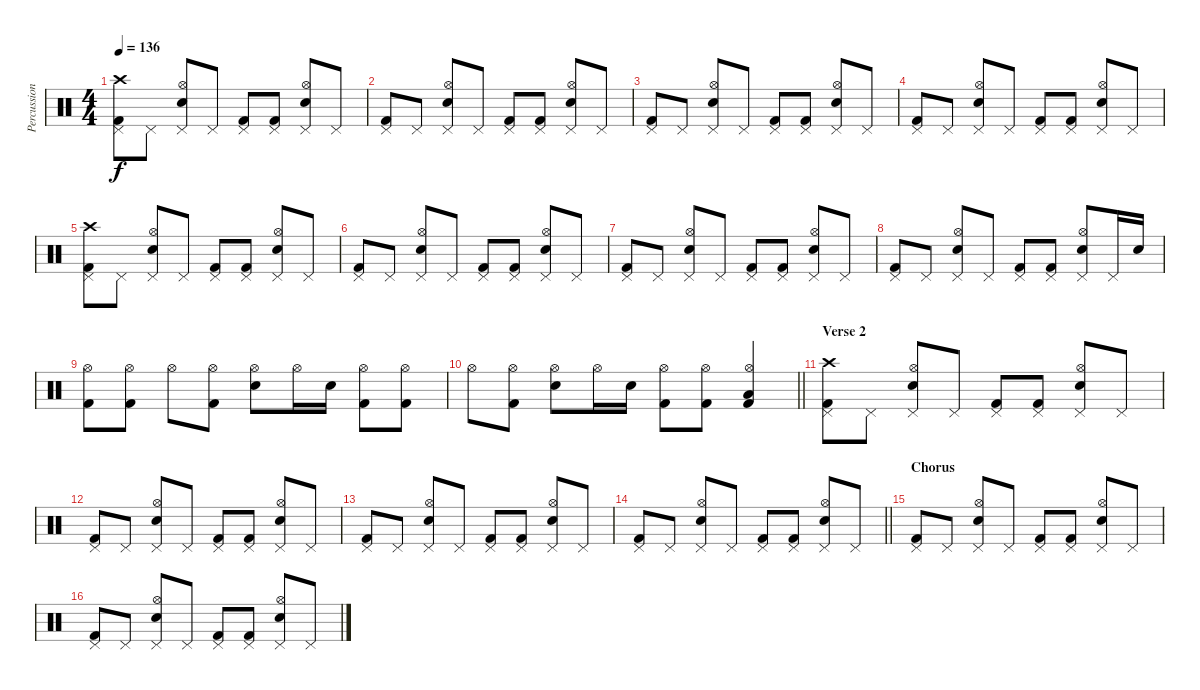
\track ("Percussion" "Percussion") {instrument percussion}
\staff {score}
\articulation defaults
\ts (4 4)
\tempo 136
\clef neutral
\ks c
("Crash high (hit)" "Pedal Hi-Hat (hit)" "Kick (hit) 2").8{dy f} "Pedal Hi-Hat (hit)".8 ("Hi-Hat (open)" "Pedal Hi-Hat (hit)" "Snare (hit) 2").8 "Pedal Hi-Hat (hit)".8 ("Pedal Hi-Hat (hit)" "Kick (hit) 2").8 ("Pedal Hi-Hat (hit)" "Kick (hit) 2").8 ("Hi-Hat (open)" "Pedal Hi-Hat (hit)" "Snare (hit) 2").8 "Pedal Hi-Hat (hit)".8 |
("Pedal Hi-Hat (hit)" "Kick (hit) 2").8 "Pedal Hi-Hat (hit)".8 ("Hi-Hat (open)" "Pedal Hi-Hat (hit)" "Snare (hit) 2").8 "Pedal Hi-Hat (hit)".8 ("Pedal Hi-Hat (hit)" "Kick (hit) 2").8 ("Pedal Hi-Hat (hit)" "Kick (hit) 2").8 ("Hi-Hat (open)" "Pedal Hi-Hat (hit)" "Snare (hit) 2").8 "Pedal Hi-Hat (hit)".8 |
("Pedal Hi-Hat (hit)" "Kick (hit) 2").8 "Pedal Hi-Hat (hit)".8 ("Hi-Hat (open)" "Pedal Hi-Hat (hit)" "Snare (hit) 2").8 "Pedal Hi-Hat (hit)".8 ("Pedal Hi-Hat (hit)" "Kick (hit) 2").8 ("Pedal Hi-Hat (hit)" "Kick (hit) 2").8 ("Hi-Hat (open)" "Pedal Hi-Hat (hit)" "Snare (hit) 2").8 "Pedal Hi-Hat (hit)".8 |
("Pedal Hi-Hat (hit)" "Kick (hit) 2").8 "Pedal Hi-Hat (hit)".8 ("Hi-Hat (open)" "Pedal Hi-Hat (hit)" "Snare (hit) 2").8 "Pedal Hi-Hat (hit)".8 ("Pedal Hi-Hat (hit)" "Kick (hit) 2").8 ("Pedal Hi-Hat (hit)" "Kick (hit) 2").8 ("Hi-Hat (open)" "Pedal Hi-Hat (hit)" "Snare (hit) 2").8 "Pedal Hi-Hat (hit)".8 |
("Crash high (hit)" "Pedal Hi-Hat (hit)" "Kick (hit) 2").8 "Pedal Hi-Hat (hit)".8 ("Hi-Hat (open)" "Pedal Hi-Hat (hit)" "Snare (hit) 2").8 "Pedal Hi-Hat (hit)".8 ("Pedal Hi-Hat (hit)" "Kick (hit) 2").8 ("Pedal Hi-Hat (hit)" "Kick (hit) 2").8 ("Hi-Hat (open)" "Pedal Hi-Hat (hit)" "Snare (hit) 2").8 "Pedal Hi-Hat (hit)".8 |
("Pedal Hi-Hat (hit)" "Kick (hit) 2").8 "Pedal Hi-Hat (hit)".8 ("Hi-Hat (open)" "Pedal Hi-Hat (hit)" "Snare (hit) 2").8 "Pedal Hi-Hat (hit)".8 ("Pedal Hi-Hat (hit)" "Kick (hit) 2").8 ("Pedal Hi-Hat (hit)" "Kick (hit) 2").8 ("Hi-Hat (open)" "Pedal Hi-Hat (hit)" "Snare (hit) 2").8 "Pedal Hi-Hat (hit)".8 |
("Pedal Hi-Hat (hit)" "Kick (hit) 2").8 "Pedal Hi-Hat (hit)".8 ("Hi-Hat (open)" "Pedal Hi-Hat (hit)" "Snare (hit) 2").8 "Pedal Hi-Hat (hit)".8 ("Pedal Hi-Hat (hit)" "Kick (hit) 2").8 ("Pedal Hi-Hat (hit)" "Kick (hit) 2").8 ("Hi-Hat (open)" "Pedal Hi-Hat (hit)" "Snare (hit) 2").8 "Pedal Hi-Hat (hit)".8 |
("Pedal Hi-Hat (hit)" "Kick (hit) 2").8 "Pedal Hi-Hat (hit)".8 ("Hi-Hat (open)" "Pedal Hi-Hat (hit)" "Snare (hit) 2").8 "Pedal Hi-Hat (hit)".8 ("Pedal Hi-Hat (hit)" "Kick (hit) 2").8 ("Pedal Hi-Hat (hit)" "Kick (hit) 2").8 ("Hi-Hat (open)" "Pedal Hi-Hat (hit)" "Snare (hit) 2").8 "Pedal Hi-Hat (hit)".16 "Snare (hit) 2".16 |
("Hi-Hat (open)" "Kick (hit) 2").8 ("Hi-Hat (open)" "Kick (hit) 2").8 "Hi-Hat (open)".8 ("Hi-Hat (open)" "Kick (hit) 2").8 ("Hi-Hat (open)" "Snare (hit) 2").8 "Hi-Hat (open)".16 "Snare (hit) 2".16 ("Hi-Hat (open)" "Kick (hit) 2").8 ("Hi-Hat (open)" "Kick (hit) 2").8 |
\barLineRight lightlight "Hi-Hat (open)".8
("Hi-Hat (open)" "Kick (hit) 2").8 ("Hi-Hat (open)" "Snare (hit) 2").8 "Hi-Hat (open)".16 "Snare (hit) 2".16 ("Hi-Hat (open)" "Kick (hit) 2").8 ("Hi-Hat (open)" "Kick (hit) 2").8 ("Hi-Hat (open)" "Low Tom (hit)" "Kick (hit) 2").4 |
\section ("" "Verse 2")
("Crash high (hit)" "Pedal Hi-Hat (hit)" "Kick (hit) 2").8 "Pedal Hi-Hat (hit)".8 ("Hi-Hat (open)" "Pedal Hi-Hat (hit)" "Snare (hit) 2").8 "Pedal Hi-Hat (hit)".8 ("Pedal Hi-Hat (hit)" "Kick (hit) 2").8 ("Pedal Hi-Hat (hit)" "Kick (hit) 2").8 ("Hi-Hat (open)" "Pedal Hi-Hat (hit)" "Snare (hit) 2").8 "Pedal Hi-Hat (hit)".8 |
("Pedal Hi-Hat (hit)" "Kick (hit) 2").8 "Pedal Hi-Hat (hit)".8 ("Hi-Hat (open)" "Pedal Hi-Hat (hit)" "Snare (hit) 2").8 "Pedal Hi-Hat (hit)".8 ("Pedal Hi-Hat (hit)" "Kick (hit) 2").8 ("Pedal Hi-Hat (hit)" "Kick (hit) 2").8 ("Hi-Hat (open)" "Pedal Hi-Hat (hit)" "Snare (hit) 2").8 "Pedal Hi-Hat (hit)".8 |
("Pedal Hi-Hat (hit)" "Kick (hit) 2").8 "Pedal Hi-Hat (hit)".8 ("Hi-Hat (open)" "Pedal Hi-Hat (hit)" "Snare (hit) 2").8 "Pedal Hi-Hat (hit)".8 ("Pedal Hi-Hat (hit)" "Kick (hit) 2").8 ("Pedal Hi-Hat (hit)" "Kick (hit) 2").8 ("Hi-Hat (open)" "Pedal Hi-Hat (hit)" "Snare (hit) 2").8 "Pedal Hi-Hat (hit)".8 |
\barLineRight lightlight
("Pedal Hi-Hat (hit)" "Kick (hit) 2").8 "Pedal Hi-Hat (hit)".8 ("Hi-Hat (open)" "Pedal Hi-Hat (hit)" "Snare (hit) 2").8 "Pedal Hi-Hat (hit)".8 ("Pedal Hi-Hat (hit)" "Kick (hit) 2").8 ("Pedal Hi-Hat (hit)" "Kick (hit) 2").8 ("Hi-Hat (open)" "Pedal Hi-Hat (hit)" "Snare (hit) 2").8 "Pedal Hi-Hat (hit)".8 |
\section ("" "Chorus")
("Pedal Hi-Hat (hit)" "Kick (hit) 2").8 "Pedal Hi-Hat (hit)".8 ("Hi-Hat (open)" "Pedal Hi-Hat (hit)" "Snare (hit) 2").8 "Pedal Hi-Hat (hit)".8 ("Pedal Hi-Hat (hit)" "Kick (hit) 2").8 ("Pedal Hi-Hat (hit)" "Kick (hit) 2").8 ("Hi-Hat (open)" "Pedal Hi-Hat (hit)" "Snare (hit) 2").8 "Pedal Hi-Hat (hit)".8 |
("Pedal Hi-Hat (hit)" "Kick (hit) 2").8 "Pedal Hi-Hat (hit)".8 ("Hi-Hat (open)" "Pedal Hi-Hat (hit)" "Snare (hit) 2").8 "Pedal Hi-Hat (hit)".8 ("Pedal Hi-Hat (hit)" "Kick (hit) 2").8 ("Pedal Hi-Hat (hit)" "Kick (hit) 2").8 ("Hi-Hat (open)" "Pedal Hi-Hat (hit)" "Snare (hit) 2").8 "Pedal Hi-Hat (hit)".8
